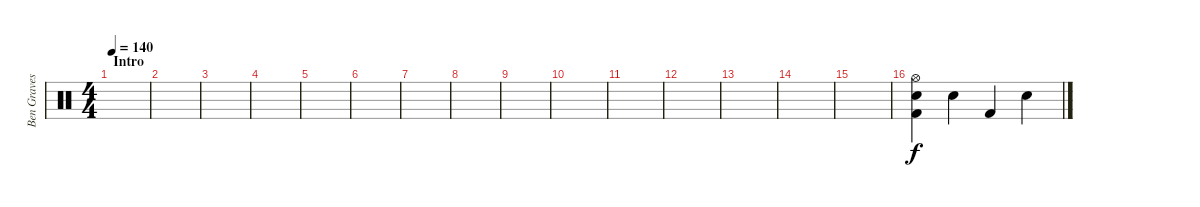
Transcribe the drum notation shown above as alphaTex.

\track ("Ben Graves" "Ben Graves") {instrument percussion}
\staff {score}
\articulation defaults
\ts (4 4)
\section ("" "Intro")
\tempo 140
\clef neutral
\ks c
|
|
|
|
|
|
|
|
|
|
|
|
|
|
|
("Kick (hit) 2" "Electric Snare (hit)" "Hi-Hat (open)").4 "Electric Snare (hit)".4 "Kick (hit) 2".4 "Electric Snare (hit)".4
